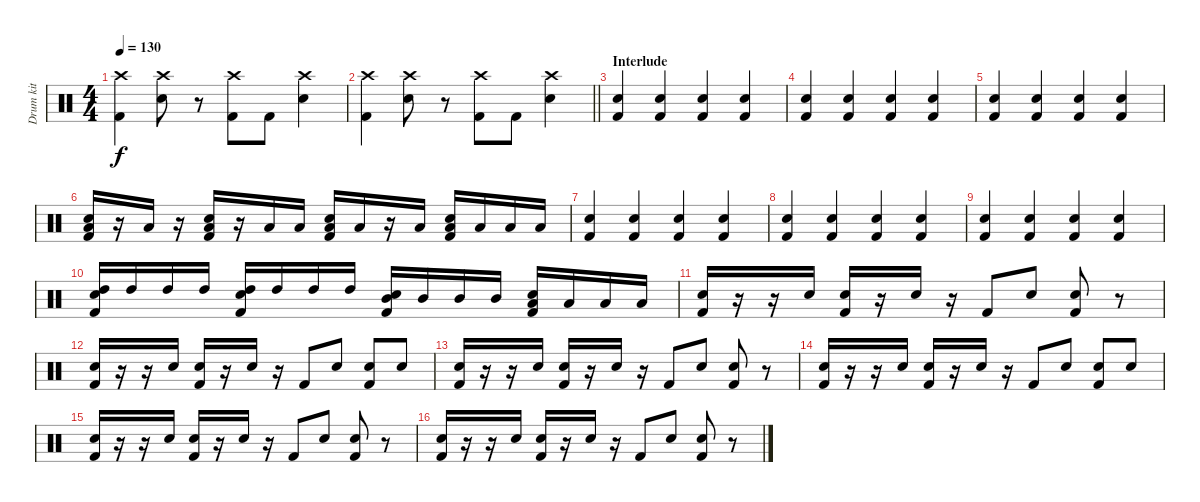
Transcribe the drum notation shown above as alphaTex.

\track ("Drum kit" "Drum kit") {instrument percussion}
\staff {score}
\articulation defaults
\ts (4 4)
\tempo 130
\clef neutral
\ks c
("Crash high (hit)" "Kick (hit) 2").4{dy f} ("Crash high (hit)" "Electric Snare (hit)").8 r.8 ("Crash high (hit)" "Kick (hit) 2").8 "Kick (hit) 2".8 ("Crash high (hit)" "Electric Snare (hit)").4 |
\barLineRight lightlight
("Crash high (hit)" "Kick (hit) 2").4 ("Crash high (hit)" "Electric Snare (hit)").8 r.8 ("Crash high (hit)" "Kick (hit) 2").8 "Kick (hit) 2".8 ("Crash high (hit)" "Electric Snare (hit)").4 |
\section ("" "Interlude")
("Hand Clap (hit)" "Kick (hit) 2").4 ("Hand Clap (hit)" "Kick (hit) 2").4 ("Hand Clap (hit)" "Kick (hit) 2").4 ("Hand Clap (hit)" "Kick (hit) 2").4 |
("Hand Clap (hit)" "Kick (hit) 2").4 ("Hand Clap (hit)" "Kick (hit) 2").4 ("Hand Clap (hit)" "Kick (hit) 2").4 ("Hand Clap (hit)" "Kick (hit) 2").4 |
("Hand Clap (hit)" "Kick (hit) 2").4 ("Hand Clap (hit)" "Kick (hit) 2").4 ("Hand Clap (hit)" "Kick (hit) 2").4 ("Hand Clap (hit)" "Kick (hit) 2").4 |
("Hand Clap (hit)" "Kick (hit) 2" "Low Tom (hit)").16 r.16 "Low Tom (hit)".16 r.16 ("Hand Clap (hit)" "Kick (hit) 2" "Low Tom (hit)").16 r.16 "Low Tom (hit)".16 "Low Tom (hit)".16 ("Hand Clap (hit)" "Kick (hit) 2" "Low Tom (hit)").16 "Low Tom (hit)".16 r.16 "Low Tom (hit)".16 ("Hand Clap (hit)" "Kick (hit) 2" "Low Tom (hit)").16 "Low Tom (hit)".16 "Low Tom (hit)".16 "Low Tom (hit)".16 |
("Hand Clap (hit)" "Kick (hit) 2").4 ("Hand Clap (hit)" "Kick (hit) 2").4 ("Hand Clap (hit)" "Kick (hit) 2").4 ("Hand Clap (hit)" "Kick (hit) 2").4 |
("Hand Clap (hit)" "Kick (hit) 2").4 ("Hand Clap (hit)" "Kick (hit) 2").4 ("Hand Clap (hit)" "Kick (hit) 2").4 ("Hand Clap (hit)" "Kick (hit) 2").4 |
("Hand Clap (hit)" "Kick (hit) 2").4 ("Hand Clap (hit)" "Kick (hit) 2").4 ("Hand Clap (hit)" "Kick (hit) 2").4 ("Hand Clap (hit)" "Kick (hit) 2").4 |
("Hand Clap (hit)" "Kick (hit) 2" "High Tom (hit)").16 "High Tom (hit)".16 "High Tom (hit)".16 "High Tom (hit)".16 ("Hand Clap (hit)" "Kick (hit) 2" "High Tom (hit)").16 "High Tom (hit)".16 "High Tom (hit)".16 "High Tom (hit)".16 ("Hand Clap (hit)" "Kick (hit) 2" "Mid Tom (hit)").16 "Mid Tom (hit)".16 "Mid Tom (hit)".16 "Mid Tom (hit)".16 ("Hand Clap (hit)" "Kick (hit) 2" "Low Tom (hit)").16 "Low Tom (hit)".16 "Low Tom (hit)".16 "Low Tom (hit)".16 |
("Hand Clap (hit)" "Kick (hit) 2").16 r.16 r.16 "Hand Clap (hit)".16 ("Hand Clap (hit)" "Kick (hit) 2").16 r.16 "Hand Clap (hit)".16 r.16 "Kick (hit) 2".8 "Hand Clap (hit)".8 ("Hand Clap (hit)" "Kick (hit) 2").8 r.8 |
("Hand Clap (hit)" "Kick (hit) 2").16 r.16 r.16 "Hand Clap (hit)".16 ("Hand Clap (hit)" "Kick (hit) 2").16 r.16 "Hand Clap (hit)".16 r.16 "Kick (hit) 2".8 "Hand Clap (hit)".8 ("Hand Clap (hit)" "Kick (hit) 2").8 "Hand Clap (hit)".8 |
("Hand Clap (hit)" "Kick (hit) 2").16 r.16 r.16 "Hand Clap (hit)".16 ("Hand Clap (hit)" "Kick (hit) 2").16 r.16 "Hand Clap (hit)".16 r.16 "Kick (hit) 2".8 "Hand Clap (hit)".8 ("Hand Clap (hit)" "Kick (hit) 2").8 r.8 |
("Hand Clap (hit)" "Kick (hit) 2").16 r.16 r.16 "Hand Clap (hit)".16 ("Hand Clap (hit)" "Kick (hit) 2").16 r.16 "Hand Clap (hit)".16 r.16 "Kick (hit) 2".8 "Hand Clap (hit)".8 ("Hand Clap (hit)" "Kick (hit) 2").8 "Hand Clap (hit)".8 |
("Hand Clap (hit)" "Kick (hit) 2").16 r.16 r.16 "Hand Clap (hit)".16 ("Hand Clap (hit)" "Kick (hit) 2").16 r.16 "Hand Clap (hit)".16 r.16 "Kick (hit) 2".8 "Hand Clap (hit)".8 ("Hand Clap (hit)" "Kick (hit) 2").8 r.8 |
("Hand Clap (hit)" "Kick (hit) 2").16 r.16 r.16 "Hand Clap (hit)".16 ("Hand Clap (hit)" "Kick (hit) 2").16 r.16 "Hand Clap (hit)".16 r.16 "Kick (hit) 2".8 "Hand Clap (hit)".8 ("Hand Clap (hit)" "Kick (hit) 2").8 r.8
